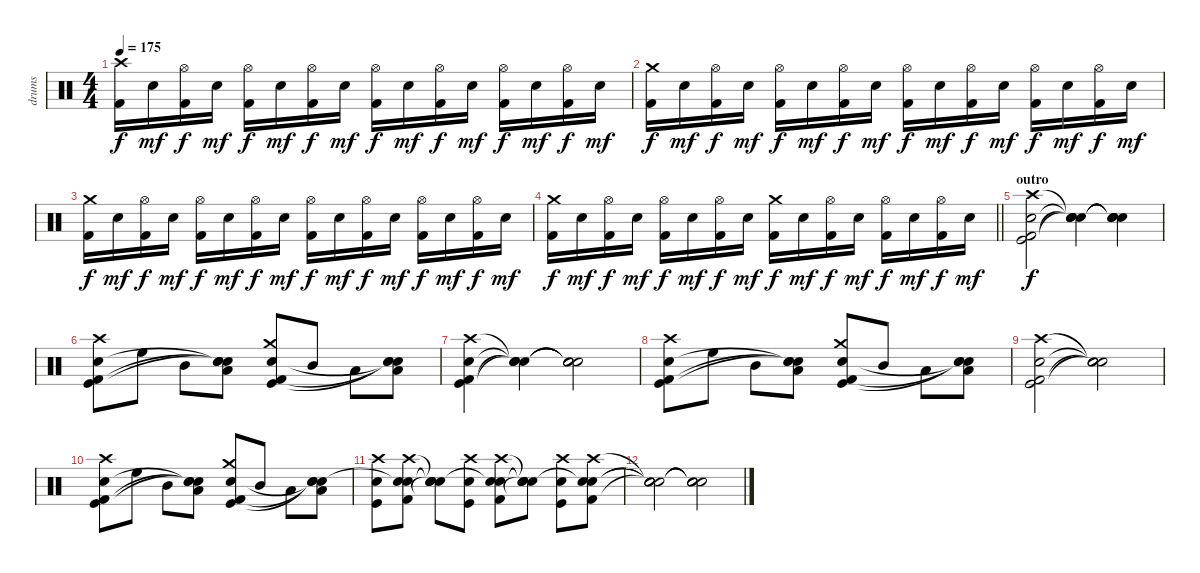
\track ("drums" "drums") {instrument percussion}
\staff {score}
\articulation defaults
\ts (4 4)
\tempo 175
\clef neutral
\ks c
("Crash high (hit)" "Kick (hit) 2").16{dy f} "Electric Snare (hit)".16{dy mf} ("Hi-Hat (open)" "Kick (hit) 2").16{dy f} "Electric Snare (hit)".16{dy mf} ("Hi-Hat (open)" "Kick (hit) 2").16{dy f} "Electric Snare (hit)".16{dy mf} ("Hi-Hat (open)" "Kick (hit) 2").16{dy f} "Electric Snare (hit)".16{dy mf} ("Hi-Hat (open)" "Kick (hit) 2").16{dy f} "Electric Snare (hit)".16{dy mf} ("Hi-Hat (open)" "Kick (hit) 2").16{dy f} "Electric Snare (hit)".16{dy mf} ("Hi-Hat (open)" "Kick (hit) 2").16{dy f} "Electric Snare (hit)".16{dy mf} ("Hi-Hat (open)" "Kick (hit) 2").16{dy f} "Electric Snare (hit)".16{dy mf} |
("Crash medium (hit)" "Kick (hit) 2").16{dy f} "Electric Snare (hit)".16{dy mf} ("Hi-Hat (open)" "Kick (hit) 2").16{dy f} "Electric Snare (hit)".16{dy mf} ("Hi-Hat (open)" "Kick (hit) 2").16{dy f} "Electric Snare (hit)".16{dy mf} ("Hi-Hat (open)" "Kick (hit) 2").16{dy f} "Electric Snare (hit)".16{dy mf} ("Hi-Hat (open)" "Kick (hit) 2").16{dy f} "Electric Snare (hit)".16{dy mf} ("Hi-Hat (open)" "Kick (hit) 2").16{dy f} "Electric Snare (hit)".16{dy mf} ("Hi-Hat (open)" "Kick (hit) 2").16{dy f} "Electric Snare (hit)".16{dy mf} ("Hi-Hat (open)" "Kick (hit) 2").16{dy f} "Electric Snare (hit)".16{dy mf} |
("Crash medium (hit)" "Kick (hit) 2").16{dy f} "Electric Snare (hit)".16{dy mf} ("Hi-Hat (open)" "Kick (hit) 2").16{dy f} "Electric Snare (hit)".16{dy mf} ("Hi-Hat (open)" "Kick (hit) 2").16{dy f} "Electric Snare (hit)".16{dy mf} ("Hi-Hat (open)" "Kick (hit) 2").16{dy f} "Electric Snare (hit)".16{dy mf} ("Hi-Hat (open)" "Kick (hit) 2").16{dy f} "Electric Snare (hit)".16{dy mf} ("Hi-Hat (open)" "Kick (hit) 2").16{dy f} "Electric Snare (hit)".16{dy mf} ("Hi-Hat (open)" "Kick (hit) 2").16{dy f} "Electric Snare (hit)".16{dy mf} ("Hi-Hat (open)" "Kick (hit) 2").16{dy f} "Electric Snare (hit)".16{dy mf} |
\barLineRight lightlight
("Crash medium (hit)" "Kick (hit) 2").16{dy f} "Electric Snare (hit)".16{dy mf} ("Hi-Hat (open)" "Kick (hit) 2").16{dy f} "Electric Snare (hit)".16{dy mf} ("Hi-Hat (open)" "Kick (hit) 2").16{dy f} "Electric Snare (hit)".16{dy mf} ("Hi-Hat (open)" "Kick (hit) 2").16{dy f} "Electric Snare (hit)".16{dy mf} ("Crash medium (hit)" "Kick (hit) 2").16{dy f} "Electric Snare (hit)".16{dy mf} ("Hi-Hat (open)" "Kick (hit) 2").16{dy f} "Electric Snare (hit)".16{dy mf} ("Hi-Hat (open)" "Kick (hit) 2").16{dy f} "Electric Snare (hit)".16{dy mf} ("Hi-Hat (open)" "Kick (hit) 2").16{dy f} "Electric Snare (hit)".16{dy mf} |
\section ("" "outro")
("Crash high (hit)" "Kick (hit) 2" "Kick (hit)" "Snare (hit) 2").2{dy f} ("Snare (hit)"{t} "Snare (hit)"{t} "Snare (hit)"{t} "Snare (hit)"{t}).4 ("Snare (hit)"{t} "Snare (hit)"{t} "Snare (hit)"{t} "Snare (hit)"{t}).4 |
("Crash high (hit)" "Kick (hit) 2" "Kick (hit)" "Snare (hit) 2").8 "High Floor Tom (hit)".8 "Mid Tom (hit)".8 ("Low Tom (hit)" "Snare (hit)"{t} "Snare (hit)"{t} "Snare (hit)"{t}).8 ("Crash medium (hit)" "Kick (hit) 2" "Kick (hit)" "Snare (hit) 2").8 "Mid Tom (hit)".8 "Low Tom (hit)".8 ("Low Floor Tom (hit)" "Snare (hit)"{t} "Snare (hit)"{t} "Snare (hit)"{t}).8 |
("Crash high (hit)" "Kick (hit) 2" "Kick (hit)" "Snare (hit) 2").4 ("Snare (hit)"{t} "Snare (hit)"{t} "Snare (hit)"{t} "Snare (hit)"{t}).4 ("Snare (hit)"{t} "Snare (hit)"{t} "Snare (hit)"{t} "Snare (hit)"{t}).2 |
("Crash high (hit)" "Kick (hit) 2" "Kick (hit)" "Snare (hit) 2").8 "High Floor Tom (hit)".8 "Mid Tom (hit)".8 ("Low Tom (hit)" "Snare (hit)"{t} "Snare (hit)"{t} "Snare (hit)"{t}).8 ("Crash medium (hit)" "Kick (hit) 2" "Kick (hit)" "Snare (hit) 2").8 "Mid Tom (hit)".8 "Low Tom (hit)".8 ("Low Floor Tom (hit)" "Snare (hit)"{t} "Snare (hit)"{t} "Snare (hit)"{t}).8 |
("Crash high (hit)" "Kick (hit) 2" "Kick (hit)" "Snare (hit) 2").2 ("Snare (hit)"{t} "Snare (hit)"{t} "Snare (hit)"{t} "Snare (hit)"{t}).2 |
("Crash high (hit)" "Kick (hit) 2" "Kick (hit)" "Snare (hit) 2").8 "High Floor Tom (hit)".8 "Mid Tom (hit)".8 ("Low Tom (hit)" "Snare (hit)"{t} "Snare (hit)"{t} "Snare (hit)"{t}).8 ("Crash medium (hit)" "Kick (hit) 2" "Kick (hit)" "Snare (hit) 2").8 "Mid Tom (hit)".8 "Low Tom (hit)".8 ("Low Floor Tom (hit)" "Snare (hit)"{t} "Snare (hit)"{t} "Snare (hit)"{t}).8 |
("Kick (hit)" "Snare (hit) 2" "Crash high (hit)").8 ("Kick (hit) 2" "Snare (hit) 2" "Crash high (hit)" "Snare (hit)"{t}).8 ("Snare (hit)"{t} "Snare (hit)"{t} "Snare (hit)"{t} "Snare (hit)"{t}).8 ("Kick (hit)" "Snare (hit) 2" "Crash high (hit)").8 ("Kick (hit) 2" "Snare (hit) 2" "Crash high (hit)" "Snare (hit)"{t}).8 ("Snare (hit)"{t} "Snare (hit)"{t} "Snare (hit)"{t} "Snare (hit)"{t}).8 ("Kick (hit)" "Snare (hit) 2" "Crash high (hit)").8 ("Kick (hit) 2" "Snare (hit) 2" "Crash high (hit)" "Snare (hit)"{t}).8 |
("Snare (hit)"{t} "Snare (hit)"{t} "Snare (hit)"{t} "Snare (hit)"{t}).2 ("Snare (hit)"{t} "Snare (hit)"{t} "Snare (hit)"{t} "Snare (hit)"{t}).2
